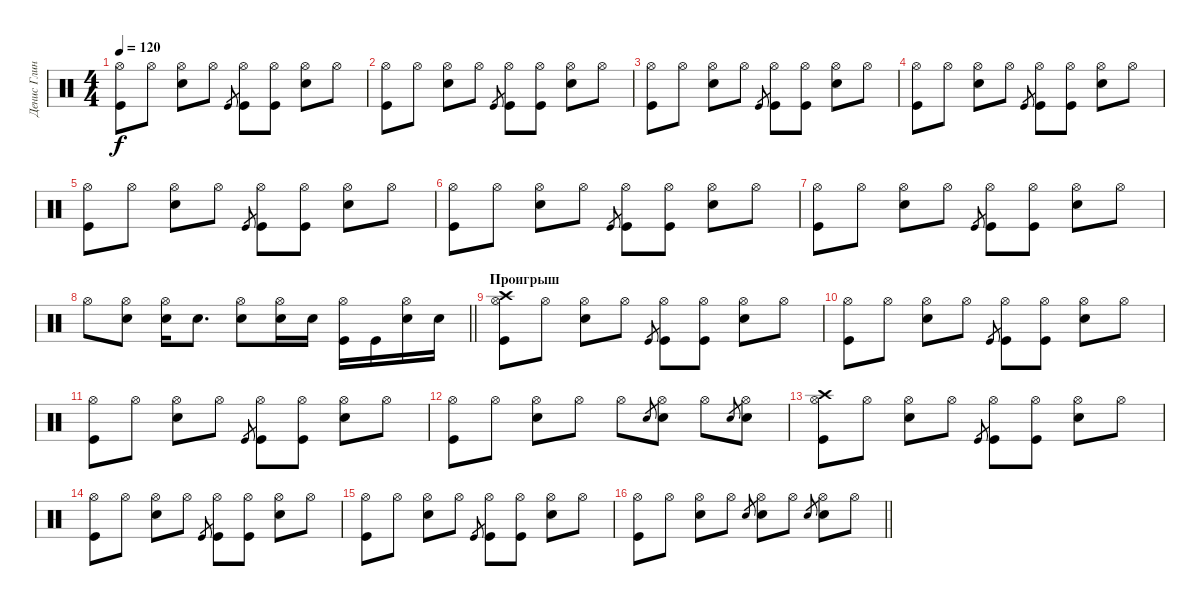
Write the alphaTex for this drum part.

\track ("Денис Глинин" "Денис Глин") {instrument percussion}
\staff {score}
\articulation defaults
\ts (4 4)
\tempo 120
\clef neutral
\ks c
("Hi-Hat (open)" "Kick (hit)").8{dy f} "Hi-Hat (open)".8 ("Hi-Hat (open)" "Snare (hit) 2").8 "Hi-Hat (open)".8 "Kick (hit)".8{gr} ("Hi-Hat (open)" "Kick (hit)").8 ("Hi-Hat (open)" "Kick (hit)").8 ("Hi-Hat (open)" "Snare (hit) 2").8 "Hi-Hat (open)".8 |
("Hi-Hat (open)" "Kick (hit)").8 "Hi-Hat (open)".8 ("Hi-Hat (open)" "Snare (hit) 2").8 "Hi-Hat (open)".8 "Kick (hit)".8{gr} ("Hi-Hat (open)" "Kick (hit)").8 ("Hi-Hat (open)" "Kick (hit)").8 ("Hi-Hat (open)" "Snare (hit) 2").8 "Hi-Hat (open)".8 |
("Hi-Hat (open)" "Kick (hit)").8 "Hi-Hat (open)".8 ("Hi-Hat (open)" "Snare (hit) 2").8 "Hi-Hat (open)".8 "Kick (hit)".8{gr} ("Hi-Hat (open)" "Kick (hit)").8 ("Hi-Hat (open)" "Kick (hit)").8 ("Hi-Hat (open)" "Snare (hit) 2").8 "Hi-Hat (open)".8 |
("Hi-Hat (open)" "Kick (hit)").8 "Hi-Hat (open)".8 ("Hi-Hat (open)" "Snare (hit) 2").8 "Hi-Hat (open)".8 "Kick (hit)".8{gr} ("Hi-Hat (open)" "Kick (hit)").8 ("Hi-Hat (open)" "Kick (hit)").8 ("Hi-Hat (open)" "Snare (hit) 2").8 "Hi-Hat (open)".8 |
("Hi-Hat (open)" "Kick (hit)").8 "Hi-Hat (open)".8 ("Hi-Hat (open)" "Snare (hit) 2").8 "Hi-Hat (open)".8 "Kick (hit)".8{gr} ("Hi-Hat (open)" "Kick (hit)").8 ("Hi-Hat (open)" "Kick (hit)").8 ("Hi-Hat (open)" "Snare (hit) 2").8 "Hi-Hat (open)".8 |
("Hi-Hat (open)" "Kick (hit)").8 "Hi-Hat (open)".8 ("Hi-Hat (open)" "Snare (hit) 2").8 "Hi-Hat (open)".8 "Kick (hit)".8{gr} ("Hi-Hat (open)" "Kick (hit)").8 ("Hi-Hat (open)" "Kick (hit)").8 ("Hi-Hat (open)" "Snare (hit) 2").8 "Hi-Hat (open)".8 |
("Hi-Hat (open)" "Kick (hit)").8 "Hi-Hat (open)".8 ("Hi-Hat (open)" "Snare (hit) 2").8 "Hi-Hat (open)".8 "Kick (hit)".8{gr} ("Hi-Hat (open)" "Kick (hit)").8 ("Hi-Hat (open)" "Kick (hit)").8 ("Hi-Hat (open)" "Snare (hit) 2").8 "Hi-Hat (open)".8 |
\barLineRight lightlight "Hi-Hat (open)".8
("Hi-Hat (open)" "Snare (hit) 2").8 ("Hi-Hat (open)" "Snare (hit) 2").16 "Snare (hit) 2".8{d} ("Hi-Hat (open)" "Snare (hit) 2").8 ("Hi-Hat (open)" "Snare (hit) 2").16 "Snare (hit) 2".16 ("Hi-Hat (open)" "Kick (hit)").16 "Kick (hit)".16 ("Hi-Hat (open)" "Snare (hit) 2").16 "Snare (hit) 2".16 |
\section ("" "Проигрыш")
("Hi-Hat (open)" "Crash high (hit)" "Kick (hit)").8 "Hi-Hat (open)".8 ("Hi-Hat (open)" "Snare (hit) 2").8 "Hi-Hat (open)".8 "Kick (hit)".8{gr} ("Hi-Hat (open)" "Kick (hit)").8 ("Hi-Hat (open)" "Kick (hit)").8 ("Hi-Hat (open)" "Snare (hit) 2").8 "Hi-Hat (open)".8 |
("Hi-Hat (open)" "Kick (hit)").8 "Hi-Hat (open)".8 ("Hi-Hat (open)" "Snare (hit) 2").8 "Hi-Hat (open)".8 "Kick (hit)".8{gr} ("Hi-Hat (open)" "Kick (hit)").8 ("Hi-Hat (open)" "Kick (hit)").8 ("Hi-Hat (open)" "Snare (hit) 2").8 "Hi-Hat (open)".8 |
("Hi-Hat (open)" "Kick (hit)").8 "Hi-Hat (open)".8 ("Hi-Hat (open)" "Snare (hit) 2").8 "Hi-Hat (open)".8 "Kick (hit)".8{gr} ("Hi-Hat (open)" "Kick (hit)").8 ("Hi-Hat (open)" "Kick (hit)").8 ("Hi-Hat (open)" "Snare (hit) 2").8 "Hi-Hat (open)".8 |
("Hi-Hat (open)" "Kick (hit)").8 "Hi-Hat (open)".8 ("Hi-Hat (open)" "Snare (hit) 2").8 "Hi-Hat (open)".8 "Hi-Hat (open)".8 "Snare (hit) 2".8{gr} ("Hi-Hat (open)" "Snare (hit) 2").8 "Hi-Hat (open)".8 "Snare (hit) 2".8{gr} ("Hi-Hat (open)" "Snare (hit) 2").8 |
("Hi-Hat (open)" "Crash high (hit)" "Kick (hit)").8 "Hi-Hat (open)".8 ("Hi-Hat (open)" "Snare (hit) 2").8 "Hi-Hat (open)".8 "Kick (hit)".8{gr} ("Hi-Hat (open)" "Kick (hit)").8 ("Hi-Hat (open)" "Kick (hit)").8 ("Hi-Hat (open)" "Snare (hit) 2").8 "Hi-Hat (open)".8 |
("Hi-Hat (open)" "Kick (hit)").8 "Hi-Hat (open)".8 ("Hi-Hat (open)" "Snare (hit) 2").8 "Hi-Hat (open)".8 "Kick (hit)".8{gr} ("Hi-Hat (open)" "Kick (hit)").8 ("Hi-Hat (open)" "Kick (hit)").8 ("Hi-Hat (open)" "Snare (hit) 2").8 "Hi-Hat (open)".8 |
("Hi-Hat (open)" "Kick (hit)").8 "Hi-Hat (open)".8 ("Hi-Hat (open)" "Snare (hit) 2").8 "Hi-Hat (open)".8 "Kick (hit)".8{gr} ("Hi-Hat (open)" "Kick (hit)").8 ("Hi-Hat (open)" "Kick (hit)").8 ("Hi-Hat (open)" "Snare (hit) 2").8 "Hi-Hat (open)".8 |
\barLineRight lightlight
("Hi-Hat (open)" "Kick (hit)").8 "Hi-Hat (open)".8 ("Hi-Hat (open)" "Snare (hit) 2").8 "Hi-Hat (open)".8 "Snare (hit) 2".8{gr} ("Hi-Hat (open)" "Snare (hit) 2").8 "Hi-Hat (open)".8 "Snare (hit) 2".8{gr} ("Hi-Hat (open)" "Snare (hit) 2").8 "Hi-Hat (open)".8
